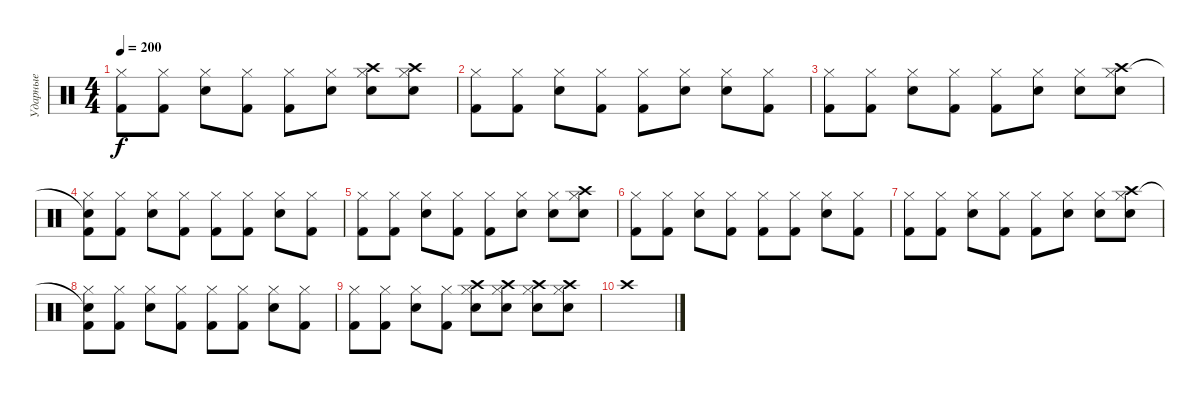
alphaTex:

\track ("Ударные" "Ударные") {instrument percussion}
\staff {score}
\articulation defaults
\ts (4 4)
\tempo 200
\clef neutral
\ks c
("Hi-Hat (closed)" "Kick (hit) 2").8{dy f} ("Hi-Hat (closed)" "Kick (hit) 2").8 ("Hi-Hat (closed)" "Electric Snare (hit)").8 ("Hi-Hat (closed)" "Kick (hit) 2").8 ("Hi-Hat (closed)" "Kick (hit) 2").8 ("Hi-Hat (closed)" "Electric Snare (hit)").8 ("Hi-Hat (closed)" "Crash high (hit)" "Electric Snare (hit)").8 ("Hi-Hat (closed)" "Crash high (hit)" "Electric Snare (hit)").8 |
("Hi-Hat (closed)" "Kick (hit) 2").8 ("Hi-Hat (closed)" "Kick (hit) 2").8 ("Hi-Hat (closed)" "Electric Snare (hit)").8 ("Hi-Hat (closed)" "Kick (hit) 2").8 ("Hi-Hat (closed)" "Kick (hit) 2").8 ("Hi-Hat (closed)" "Electric Snare (hit)").8 ("Hi-Hat (closed)" "Electric Snare (hit)").8 ("Hi-Hat (closed)" "Kick (hit) 2").8 |
("Hi-Hat (closed)" "Kick (hit) 2").8 ("Hi-Hat (closed)" "Kick (hit) 2").8 ("Hi-Hat (closed)" "Electric Snare (hit)").8 ("Hi-Hat (closed)" "Kick (hit) 2").8 ("Hi-Hat (closed)" "Kick (hit) 2").8 ("Hi-Hat (closed)" "Electric Snare (hit)").8 ("Hi-Hat (closed)" "Electric Snare (hit)").8 ("Hi-Hat (closed)" "Crash high (hit)" "Electric Snare (hit)").8 |
("Snare (hit)"{t} "Hi-Hat (closed)" "Kick (hit) 2").8 ("Hi-Hat (closed)" "Kick (hit) 2").8 ("Hi-Hat (closed)" "Electric Snare (hit)").8 ("Hi-Hat (closed)" "Kick (hit) 2").8 ("Hi-Hat (closed)" "Kick (hit) 2").8 ("Hi-Hat (closed)" "Kick (hit) 2").8 ("Hi-Hat (closed)" "Electric Snare (hit)").8 ("Hi-Hat (closed)" "Kick (hit) 2").8 |
("Hi-Hat (closed)" "Kick (hit) 2").8 ("Hi-Hat (closed)" "Kick (hit) 2").8 ("Hi-Hat (closed)" "Electric Snare (hit)").8 ("Hi-Hat (closed)" "Kick (hit) 2").8 ("Hi-Hat (closed)" "Kick (hit) 2").8 ("Hi-Hat (closed)" "Electric Snare (hit)").8 ("Hi-Hat (closed)" "Electric Snare (hit)").8 ("Hi-Hat (closed)" "Crash high (hit)" "Electric Snare (hit)").8 |
("Hi-Hat (closed)" "Kick (hit) 2").8 ("Hi-Hat (closed)" "Kick (hit) 2").8 ("Hi-Hat (closed)" "Electric Snare (hit)").8 ("Hi-Hat (closed)" "Kick (hit) 2").8 ("Hi-Hat (closed)" "Kick (hit) 2").8 ("Hi-Hat (closed)" "Kick (hit) 2").8 ("Hi-Hat (closed)" "Electric Snare (hit)").8 ("Hi-Hat (closed)" "Kick (hit) 2").8 |
("Hi-Hat (closed)" "Kick (hit) 2").8 ("Hi-Hat (closed)" "Kick (hit) 2").8 ("Hi-Hat (closed)" "Electric Snare (hit)").8 ("Hi-Hat (closed)" "Kick (hit) 2").8 ("Hi-Hat (closed)" "Kick (hit) 2").8 ("Hi-Hat (closed)" "Electric Snare (hit)").8 ("Hi-Hat (closed)" "Electric Snare (hit)").8 ("Hi-Hat (closed)" "Crash high (hit)" "Electric Snare (hit)").8 |
("Snare (hit)"{t} "Hi-Hat (closed)" "Kick (hit) 2").8 ("Hi-Hat (closed)" "Kick (hit) 2").8 ("Hi-Hat (closed)" "Electric Snare (hit)").8 ("Hi-Hat (closed)" "Kick (hit) 2").8 ("Hi-Hat (closed)" "Kick (hit) 2").8 ("Hi-Hat (closed)" "Kick (hit) 2").8 ("Hi-Hat (closed)" "Electric Snare (hit)").8 ("Hi-Hat (closed)" "Kick (hit) 2").8 |
("Hi-Hat (closed)" "Kick (hit) 2").8 ("Hi-Hat (closed)" "Kick (hit) 2").8 ("Hi-Hat (closed)" "Electric Snare (hit)").8 ("Hi-Hat (closed)" "Kick (hit) 2").8 ("Hi-Hat (closed)" "Crash high (hit)" "Electric Snare (hit)").8 ("Hi-Hat (closed)" "Crash high (hit)" "Electric Snare (hit)").8 ("Hi-Hat (closed)" "Crash high (hit)" "Electric Snare (hit)").8 ("Hi-Hat (closed)" "Crash high (hit)" "Electric Snare (hit)").8 |
"Crash high (hit)".1
